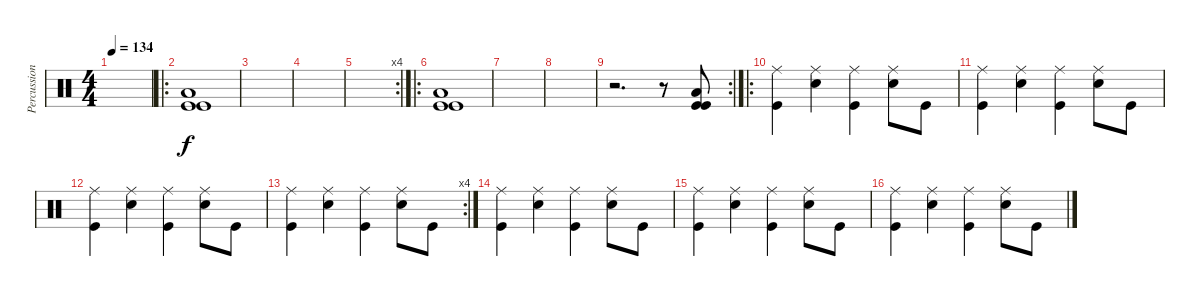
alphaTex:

\track ("Percussion" "Percussion") {instrument percussion}
\staff {score}
\articulation defaults
\ts (4 4)
\tempo 134
\clef neutral
\ks c
|
\ro
("Low Floor Tom (hit)" "Kick (hit)" "Kick (hit)").1 |
|
|
\rc 4
|
\ro
("Low Floor Tom (hit)" "Kick (hit)" "Kick (hit)").1 |
|
|
\rc 2
r.2{d} r.8 ("Low Floor Tom (hit)" "Kick (hit)" "Kick (hit)").8 |
\ro
("Ride (middle)" "Kick (hit)").4 ("Ride (middle)" "Snare (hit) 2").4 ("Ride (middle)" "Kick (hit)").4 ("Ride (middle)" "Snare (hit) 2").8 "Kick (hit)".8 |
("Ride (middle)" "Kick (hit)").4 ("Ride (middle)" "Snare (hit) 2").4 ("Ride (middle)" "Kick (hit)").4 ("Ride (middle)" "Snare (hit) 2").8 "Kick (hit)".8 |
("Ride (middle)" "Kick (hit)").4 ("Ride (middle)" "Snare (hit) 2").4 ("Ride (middle)" "Kick (hit)").4 ("Ride (middle)" "Snare (hit) 2").8 "Kick (hit)".8 |
\rc 4
("Ride (middle)" "Kick (hit)").4 ("Ride (middle)" "Snare (hit) 2").4 ("Ride (middle)" "Kick (hit)").4 ("Ride (middle)" "Snare (hit) 2").8 "Kick (hit)".8 |
("Ride (middle)" "Kick (hit)").4 ("Ride (middle)" "Snare (hit) 2").4 ("Ride (middle)" "Kick (hit)").4 ("Ride (middle)" "Snare (hit) 2").8 "Kick (hit)".8 |
("Ride (middle)" "Kick (hit)").4 ("Ride (middle)" "Snare (hit) 2").4 ("Ride (middle)" "Kick (hit)").4 ("Ride (middle)" "Snare (hit) 2").8 "Kick (hit)".8 |
("Ride (middle)" "Kick (hit)").4 ("Ride (middle)" "Snare (hit) 2").4 ("Ride (middle)" "Kick (hit)").4 ("Ride (middle)" "Snare (hit) 2").8 "Kick (hit)".8
